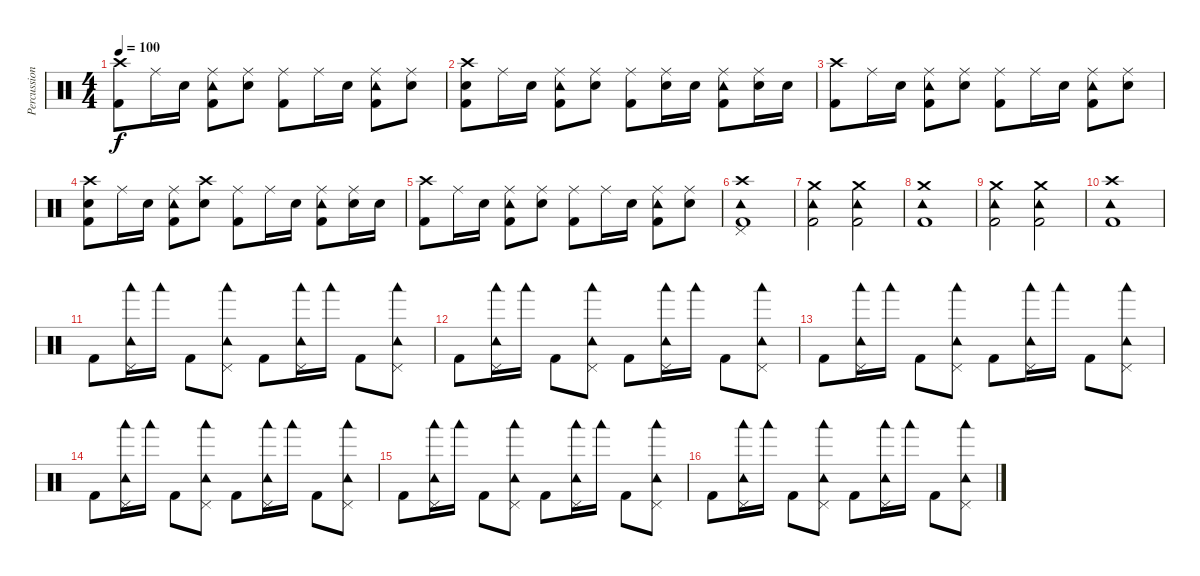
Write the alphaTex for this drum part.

\track ("Percussion" "Percussion") {instrument percussion}
\staff {score}
\articulation defaults
\ts (4 4)
\tempo 100
\clef neutral
\ks c
("Crash high (hit)" "Kick (hit) 2").8{dy f} "Ride (middle)".16 "Electric Snare (hit)".16 ("Kick (hit) 2" "Ride (middle)" "Tambourine (hit)").8 ("Ride (middle)" "Electric Snare (hit)").8 ("Kick (hit) 2" "Ride (middle)").8 "Ride (middle)".16 "Electric Snare (hit)".16 ("Kick (hit) 2" "Ride (middle)" "Tambourine (hit)").8 ("Ride (middle)" "Electric Snare (hit)").8 |
("Crash high (hit)" "Electric Snare (hit)" "Kick (hit) 2").8 "Ride (middle)".16 "Electric Snare (hit)".16 ("Kick (hit) 2" "Ride (middle)" "Tambourine (hit)").8 ("Ride (middle)" "Electric Snare (hit)").8 ("Kick (hit) 2" "Ride (middle)").8 ("Ride (middle)" "Electric Snare (hit)").16 "Electric Snare (hit)".16 ("Kick (hit) 2" "Ride (middle)" "Tambourine (hit)").8 ("Ride (middle)" "Electric Snare (hit)").16 "Electric Snare (hit)".16 |
("Crash high (hit)" "Kick (hit) 2").8 "Ride (middle)".16 "Electric Snare (hit)".16 ("Kick (hit) 2" "Ride (middle)" "Tambourine (hit)").8 ("Ride (middle)" "Electric Snare (hit)").8 ("Kick (hit) 2" "Ride (middle)").8 "Ride (middle)".16 "Electric Snare (hit)".16 ("Kick (hit) 2" "Ride (middle)" "Tambourine (hit)").8 ("Ride (middle)" "Electric Snare (hit)").8 |
("Crash high (hit)" "Electric Snare (hit)" "Kick (hit) 2").8 "Ride (middle)".16 "Electric Snare (hit)".16 ("Kick (hit) 2" "Ride (middle)" "Tambourine (hit)").8 ("Crash high (hit)" "Electric Snare (hit)").8 ("Kick (hit) 2" "Ride (middle)").8 "Ride (middle)".16 "Electric Snare (hit)".16 ("Kick (hit) 2" "Ride (middle)" "Tambourine (hit)").8 ("Ride (middle)" "Electric Snare (hit)").16 "Electric Snare (hit)".16 |
("Crash high (hit)" "Kick (hit) 2").8 "Ride (middle)".16 "Electric Snare (hit)".16 ("Kick (hit) 2" "Ride (middle)" "Tambourine (hit)").8 ("Ride (middle)" "Electric Snare (hit)").8 ("Kick (hit) 2" "Ride (middle)").8 "Ride (middle)".16 "Electric Snare (hit)".16 ("Kick (hit) 2" "Ride (middle)" "Tambourine (hit)").8 ("Ride (middle)" "Electric Snare (hit)").8 |
("Crash high (hit)" "Tambourine (hit)" "Pedal Hi-Hat (hit)" "Kick (hit) 2").1 |
("Tambourine (hit)" "Kick (hit) 2" "Crash medium (hit)").2 ("Tambourine (hit)" "Kick (hit) 2" "Crash medium (hit)").2 |
("Tambourine (hit)" "Kick (hit) 2" "Crash medium (hit)").1 |
("Tambourine (hit)" "Kick (hit) 2" "Crash medium (hit)").2 ("Tambourine (hit)" "Kick (hit) 2" "Crash medium (hit)").2 |
("Tambourine (hit)" "Kick (hit) 2" "Crash high (hit)").1 |
"Kick (hit) 2".8 ("Woodblock low (hit)" "Tambourine (hit)" "Pedal Hi-Hat (hit)").16 "Woodblock low (hit)".16 "Kick (hit) 2".8 ("Woodblock low (hit)" "Tambourine (hit)" "Pedal Hi-Hat (hit)").8 "Kick (hit) 2".8 ("Tambourine (hit)" "Woodblock low (hit)" "Pedal Hi-Hat (hit)").16 "Woodblock low (hit)".16 "Kick (hit) 2".8 ("Woodblock low (hit)" "Tambourine (hit)" "Pedal Hi-Hat (hit)").8 |
"Kick (hit) 2".8 ("Woodblock low (hit)" "Tambourine (hit)" "Pedal Hi-Hat (hit)").16 "Woodblock low (hit)".16 "Kick (hit) 2".8 ("Woodblock low (hit)" "Tambourine (hit)" "Pedal Hi-Hat (hit)").8 "Kick (hit) 2".8 ("Tambourine (hit)" "Woodblock low (hit)" "Pedal Hi-Hat (hit)").16 "Woodblock low (hit)".16 "Kick (hit) 2".8 ("Woodblock low (hit)" "Tambourine (hit)" "Pedal Hi-Hat (hit)").8 |
"Kick (hit) 2".8 ("Woodblock low (hit)" "Tambourine (hit)" "Pedal Hi-Hat (hit)").16 "Woodblock low (hit)".16 "Kick (hit) 2".8 ("Woodblock low (hit)" "Tambourine (hit)" "Pedal Hi-Hat (hit)").8 "Kick (hit) 2".8 ("Tambourine (hit)" "Woodblock low (hit)" "Pedal Hi-Hat (hit)").16 "Woodblock low (hit)".16 "Kick (hit) 2".8 ("Woodblock low (hit)" "Tambourine (hit)" "Pedal Hi-Hat (hit)").8 |
"Kick (hit) 2".8 ("Woodblock low (hit)" "Tambourine (hit)" "Pedal Hi-Hat (hit)").16 "Woodblock low (hit)".16 "Kick (hit) 2".8 ("Woodblock low (hit)" "Tambourine (hit)" "Pedal Hi-Hat (hit)").8 "Kick (hit) 2".8 ("Tambourine (hit)" "Woodblock low (hit)" "Pedal Hi-Hat (hit)").16 "Woodblock low (hit)".16 "Kick (hit) 2".8 ("Woodblock low (hit)" "Tambourine (hit)" "Pedal Hi-Hat (hit)").8 |
"Kick (hit) 2".8 ("Woodblock low (hit)" "Tambourine (hit)" "Pedal Hi-Hat (hit)").16 "Woodblock low (hit)".16 "Kick (hit) 2".8 ("Woodblock low (hit)" "Tambourine (hit)" "Pedal Hi-Hat (hit)").8 "Kick (hit) 2".8 ("Tambourine (hit)" "Woodblock low (hit)" "Pedal Hi-Hat (hit)").16 "Woodblock low (hit)".16 "Kick (hit) 2".8 ("Woodblock low (hit)" "Tambourine (hit)" "Pedal Hi-Hat (hit)").8 |
"Kick (hit) 2".8 ("Woodblock low (hit)" "Tambourine (hit)" "Pedal Hi-Hat (hit)").16 "Woodblock low (hit)".16 "Kick (hit) 2".8 ("Woodblock low (hit)" "Tambourine (hit)" "Pedal Hi-Hat (hit)").8 "Kick (hit) 2".8 ("Tambourine (hit)" "Woodblock low (hit)" "Pedal Hi-Hat (hit)").16 "Woodblock low (hit)".16 "Kick (hit) 2".8 ("Woodblock low (hit)" "Tambourine (hit)" "Pedal Hi-Hat (hit)").8
